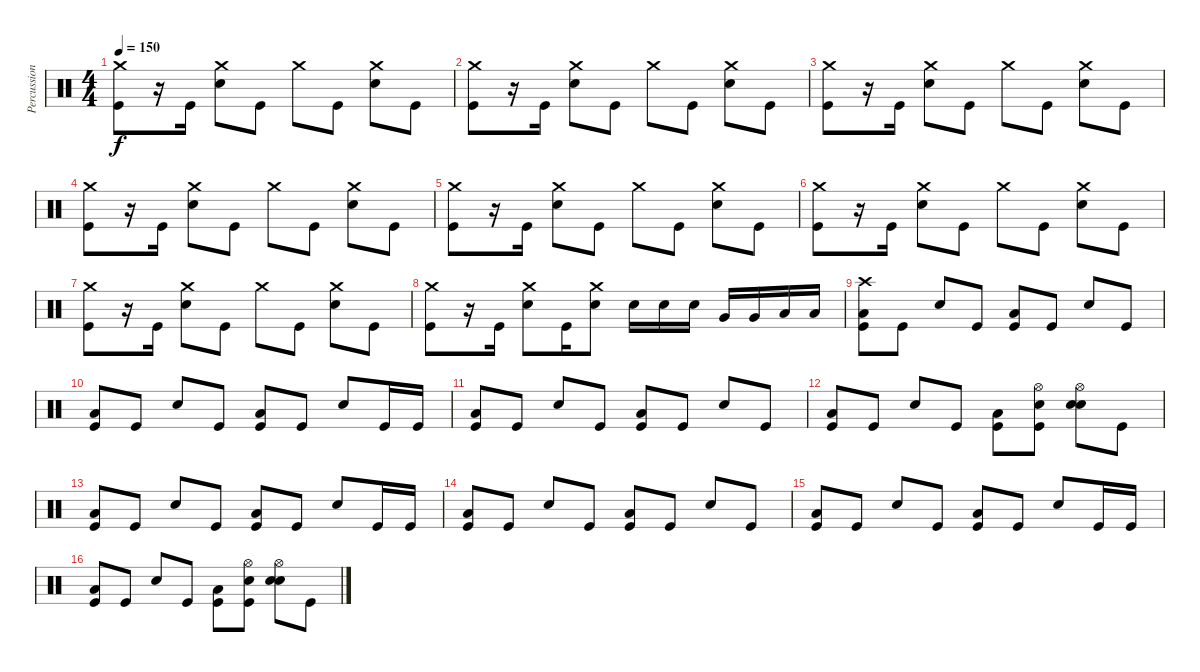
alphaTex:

\track ("Percussion" "Percussion") {instrument percussion}
\staff {score}
\articulation defaults
\ts (4 4)
\tempo 150
\clef neutral
\ks c
("Crash medium (hit)" "Kick (hit)").8{dy f} r.16 "Kick (hit)".16 ("Crash medium (hit)" "Electric Snare (hit)").8 "Kick (hit)".8 "Crash medium (hit)".8 "Kick (hit)".8 ("Crash medium (hit)" "Electric Snare (hit)").8 "Kick (hit)".8 |
("Crash medium (hit)" "Kick (hit)").8 r.16 "Kick (hit)".16 ("Crash medium (hit)" "Electric Snare (hit)").8 "Kick (hit)".8 "Crash medium (hit)".8 "Kick (hit)".8 ("Crash medium (hit)" "Electric Snare (hit)").8 "Kick (hit)".8 |
("Crash medium (hit)" "Kick (hit)").8 r.16 "Kick (hit)".16 ("Crash medium (hit)" "Electric Snare (hit)").8 "Kick (hit)".8 "Crash medium (hit)".8 "Kick (hit)".8 ("Crash medium (hit)" "Electric Snare (hit)").8 "Kick (hit)".8 |
("Crash medium (hit)" "Kick (hit)").8 r.16 "Kick (hit)".16 ("Crash medium (hit)" "Electric Snare (hit)").8 "Kick (hit)".8 "Crash medium (hit)".8 "Kick (hit)".8 ("Crash medium (hit)" "Electric Snare (hit)").8 "Kick (hit)".8 |
("Crash medium (hit)" "Kick (hit)").8 r.16 "Kick (hit)".16 ("Crash medium (hit)" "Electric Snare (hit)").8 "Kick (hit)".8 "Crash medium (hit)".8 "Kick (hit)".8 ("Crash medium (hit)" "Electric Snare (hit)").8 "Kick (hit)".8 |
("Crash medium (hit)" "Kick (hit)").8 r.16 "Kick (hit)".16 ("Crash medium (hit)" "Electric Snare (hit)").8 "Kick (hit)".8 "Crash medium (hit)".8 "Kick (hit)".8 ("Crash medium (hit)" "Electric Snare (hit)").8 "Kick (hit)".8 |
("Crash medium (hit)" "Kick (hit)").8 r.16 "Kick (hit)".16 ("Crash medium (hit)" "Electric Snare (hit)").8 "Kick (hit)".8 "Crash medium (hit)".8 "Kick (hit)".8 ("Crash medium (hit)" "Electric Snare (hit)").8 "Kick (hit)".8 |
("Crash medium (hit)" "Kick (hit)").8 r.16 "Kick (hit)".16 ("Crash medium (hit)" "Electric Snare (hit)").8 "Kick (hit)".16 ("Crash medium (hit)" "Electric Snare (hit)").8 "Electric Snare (hit)".16 "Electric Snare (hit)".16 "Electric Snare (hit)".16 "Very Low Tom (hit)".16 "Very Low Tom (hit)".16 "Low Floor Tom (hit)".16 "Low Floor Tom (hit)".16 |
("Crash high (hit)" "Low Floor Tom (hit)" "Kick (hit)").8 "Kick (hit)".8 "Electric Snare (hit)".8 "Kick (hit)".8 ("Low Floor Tom (hit)" "Kick (hit)").8 "Kick (hit)".8 "Electric Snare (hit)".8 "Kick (hit)".8 |
("Low Floor Tom (hit)" "Kick (hit)").8 "Kick (hit)".8 "Electric Snare (hit)".8 "Kick (hit)".8 ("Low Floor Tom (hit)" "Kick (hit)").8 "Kick (hit)".8 "Electric Snare (hit)".8 "Kick (hit)".16 "Kick (hit)".16 |
("Low Floor Tom (hit)" "Kick (hit)").8 "Kick (hit)".8 "Electric Snare (hit)".8 "Kick (hit)".8 ("Low Floor Tom (hit)" "Kick (hit)").8 "Kick (hit)".8 "Electric Snare (hit)".8 "Kick (hit)".8 |
("Low Floor Tom (hit)" "Kick (hit)").8 "Kick (hit)".8 "Electric Snare (hit)".8 "Kick (hit)".8 ("Low Floor Tom (hit)" "Kick (hit)").8 ("Hand Clap (hit)" "Hi-Hat (open)" "Kick (hit)").8 ("Hand Clap (hit)" "Hi-Hat (open)" "Electric Snare (hit)").8 "Kick (hit)".8 |
("Low Floor Tom (hit)" "Kick (hit)").8 "Kick (hit)".8 "Electric Snare (hit)".8 "Kick (hit)".8 ("Low Floor Tom (hit)" "Kick (hit)").8 "Kick (hit)".8 "Electric Snare (hit)".8 "Kick (hit)".16 "Kick (hit)".16 |
("Low Floor Tom (hit)" "Kick (hit)").8 "Kick (hit)".8 "Electric Snare (hit)".8 "Kick (hit)".8 ("Low Floor Tom (hit)" "Kick (hit)").8 "Kick (hit)".8 "Electric Snare (hit)".8 "Kick (hit)".8 |
("Low Floor Tom (hit)" "Kick (hit)").8 "Kick (hit)".8 "Electric Snare (hit)".8 "Kick (hit)".8 ("Low Floor Tom (hit)" "Kick (hit)").8 "Kick (hit)".8 "Electric Snare (hit)".8 "Kick (hit)".16 "Kick (hit)".16 |
("Low Floor Tom (hit)" "Kick (hit)").8 "Kick (hit)".8 "Electric Snare (hit)".8 "Kick (hit)".8 ("Low Floor Tom (hit)" "Kick (hit)").8 ("Hand Clap (hit)" "Hi-Hat (open)" "Kick (hit)").8 ("Hand Clap (hit)" "Hi-Hat (open)" "Electric Snare (hit)").8 "Kick (hit)".8
